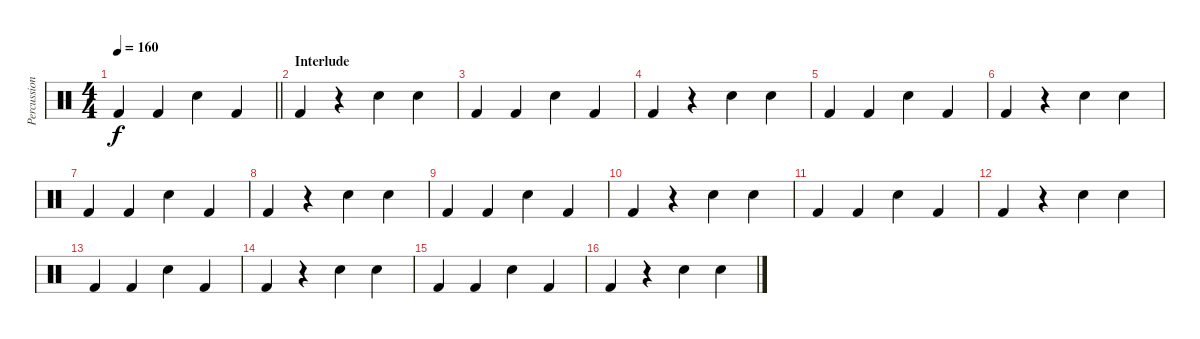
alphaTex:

\track ("Percussion" "Percussion") {instrument percussion}
\staff {score}
\articulation defaults
\ts (4 4)
\tempo 160
\clef neutral
\barLineRight lightlight
\ks c "Kick (hit) 2".4{dy f} "Kick (hit) 2".4 "Electric Snare (hit)".4 "Kick (hit) 2".4
|
\section ("" "Interlude")
"Kick (hit) 2".4 r.4 "Electric Snare (hit)".4 "Electric Snare (hit)".4 |
"Kick (hit) 2".4 "Kick (hit) 2".4 "Electric Snare (hit)".4 "Kick (hit) 2".4 |
"Kick (hit) 2".4 r.4 "Electric Snare (hit)".4 "Electric Snare (hit)".4 |
"Kick (hit) 2".4 "Kick (hit) 2".4 "Electric Snare (hit)".4 "Kick (hit) 2".4 |
"Kick (hit) 2".4 r.4 "Electric Snare (hit)".4 "Electric Snare (hit)".4 |
"Kick (hit) 2".4 "Kick (hit) 2".4 "Electric Snare (hit)".4 "Kick (hit) 2".4 |
"Kick (hit) 2".4 r.4 "Electric Snare (hit)".4 "Electric Snare (hit)".4 |
"Kick (hit) 2".4 "Kick (hit) 2".4 "Electric Snare (hit)".4 "Kick (hit) 2".4 |
"Kick (hit) 2".4 r.4 "Electric Snare (hit)".4 "Electric Snare (hit)".4 |
"Kick (hit) 2".4 "Kick (hit) 2".4 "Electric Snare (hit)".4 "Kick (hit) 2".4 |
"Kick (hit) 2".4 r.4 "Electric Snare (hit)".4 "Electric Snare (hit)".4 |
"Kick (hit) 2".4 "Kick (hit) 2".4 "Electric Snare (hit)".4 "Kick (hit) 2".4 |
"Kick (hit) 2".4 r.4 "Electric Snare (hit)".4 "Electric Snare (hit)".4 |
"Kick (hit) 2".4 "Kick (hit) 2".4 "Electric Snare (hit)".4 "Kick (hit) 2".4 |
"Kick (hit) 2".4 r.4 "Electric Snare (hit)".4 "Electric Snare (hit)".4
